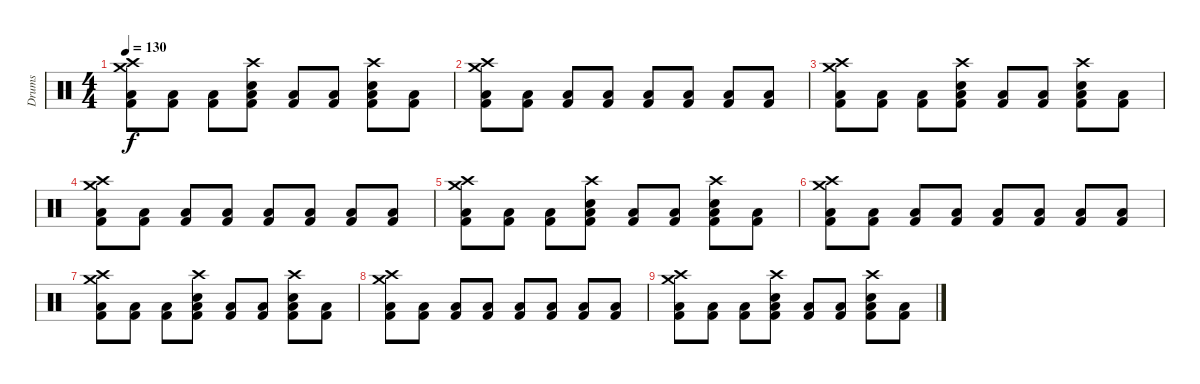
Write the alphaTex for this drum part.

\track ("Drums" "Drums") {instrument percussion}
\staff {score}
\articulation defaults
\ts (4 4)
\tempo 130
\clef neutral
\ks c
("Crash medium (hit)" "Crash high (hit)" "Low Tom (hit)" "Kick (hit) 2").8{dy f} ("Low Tom (hit)" "Kick (hit) 2").8 ("Low Tom (hit)" "Kick (hit) 2").8 ("Crash high (hit)" "Electric Snare (hit)" "Low Tom (hit)" "Kick (hit) 2").8 ("Low Tom (hit)" "Kick (hit) 2").8 ("Low Tom (hit)" "Kick (hit) 2").8 ("Electric Snare (hit)" "Crash high (hit)" "Low Tom (hit)" "Kick (hit) 2").8 ("Low Tom (hit)" "Kick (hit) 2").8 |
("Crash medium (hit)" "Crash high (hit)" "Low Tom (hit)" "Kick (hit) 2").8 ("Low Tom (hit)" "Kick (hit) 2").8 ("Low Tom (hit)" "Kick (hit) 2").8 ("Low Tom (hit)" "Kick (hit) 2").8 ("Low Tom (hit)" "Kick (hit) 2").8 ("Low Tom (hit)" "Kick (hit) 2").8 ("Low Tom (hit)" "Kick (hit) 2").8 ("Low Tom (hit)" "Kick (hit) 2").8 |
("Crash medium (hit)" "Crash high (hit)" "Low Tom (hit)" "Kick (hit) 2").8 ("Low Tom (hit)" "Kick (hit) 2").8 ("Low Tom (hit)" "Kick (hit) 2").8 ("Crash high (hit)" "Electric Snare (hit)" "Low Tom (hit)" "Kick (hit) 2").8 ("Low Tom (hit)" "Kick (hit) 2").8 ("Low Tom (hit)" "Kick (hit) 2").8 ("Electric Snare (hit)" "Crash high (hit)" "Low Tom (hit)" "Kick (hit) 2").8 ("Low Tom (hit)" "Kick (hit) 2").8 |
("Crash medium (hit)" "Crash high (hit)" "Low Tom (hit)" "Kick (hit) 2").8 ("Low Tom (hit)" "Kick (hit) 2").8 ("Low Tom (hit)" "Kick (hit) 2").8 ("Low Tom (hit)" "Kick (hit) 2").8 ("Low Tom (hit)" "Kick (hit) 2").8 ("Low Tom (hit)" "Kick (hit) 2").8 ("Low Tom (hit)" "Kick (hit) 2").8 ("Low Tom (hit)" "Kick (hit) 2").8 |
("Crash medium (hit)" "Crash high (hit)" "Low Tom (hit)" "Kick (hit) 2").8 ("Low Tom (hit)" "Kick (hit) 2").8 ("Low Tom (hit)" "Kick (hit) 2").8 ("Crash high (hit)" "Electric Snare (hit)" "Low Tom (hit)" "Kick (hit) 2").8 ("Low Tom (hit)" "Kick (hit) 2").8 ("Low Tom (hit)" "Kick (hit) 2").8 ("Electric Snare (hit)" "Crash high (hit)" "Low Tom (hit)" "Kick (hit) 2").8 ("Low Tom (hit)" "Kick (hit) 2").8 |
("Crash medium (hit)" "Crash high (hit)" "Low Tom (hit)" "Kick (hit) 2").8 ("Low Tom (hit)" "Kick (hit) 2").8 ("Low Tom (hit)" "Kick (hit) 2").8 ("Low Tom (hit)" "Kick (hit) 2").8 ("Low Tom (hit)" "Kick (hit) 2").8 ("Low Tom (hit)" "Kick (hit) 2").8 ("Low Tom (hit)" "Kick (hit) 2").8 ("Low Tom (hit)" "Kick (hit) 2").8 |
("Crash medium (hit)" "Crash high (hit)" "Low Tom (hit)" "Kick (hit) 2").8 ("Low Tom (hit)" "Kick (hit) 2").8 ("Low Tom (hit)" "Kick (hit) 2").8 ("Crash high (hit)" "Electric Snare (hit)" "Low Tom (hit)" "Kick (hit) 2").8 ("Low Tom (hit)" "Kick (hit) 2").8 ("Low Tom (hit)" "Kick (hit) 2").8 ("Electric Snare (hit)" "Crash high (hit)" "Low Tom (hit)" "Kick (hit) 2").8 ("Low Tom (hit)" "Kick (hit) 2").8 |
("Crash medium (hit)" "Crash high (hit)" "Low Tom (hit)" "Kick (hit) 2").8 ("Low Tom (hit)" "Kick (hit) 2").8 ("Low Tom (hit)" "Kick (hit) 2").8 ("Low Tom (hit)" "Kick (hit) 2").8 ("Low Tom (hit)" "Kick (hit) 2").8 ("Low Tom (hit)" "Kick (hit) 2").8 ("Low Tom (hit)" "Kick (hit) 2").8 ("Low Tom (hit)" "Kick (hit) 2").8 |
("Crash medium (hit)" "Crash high (hit)" "Low Tom (hit)" "Kick (hit) 2").8 ("Low Tom (hit)" "Kick (hit) 2").8 ("Low Tom (hit)" "Kick (hit) 2").8 ("Crash high (hit)" "Electric Snare (hit)" "Low Tom (hit)" "Kick (hit) 2").8 ("Low Tom (hit)" "Kick (hit) 2").8 ("Low Tom (hit)" "Kick (hit) 2").8 ("Electric Snare (hit)" "Crash high (hit)" "Low Tom (hit)" "Kick (hit) 2").8 ("Low Tom (hit)" "Kick (hit) 2").8
